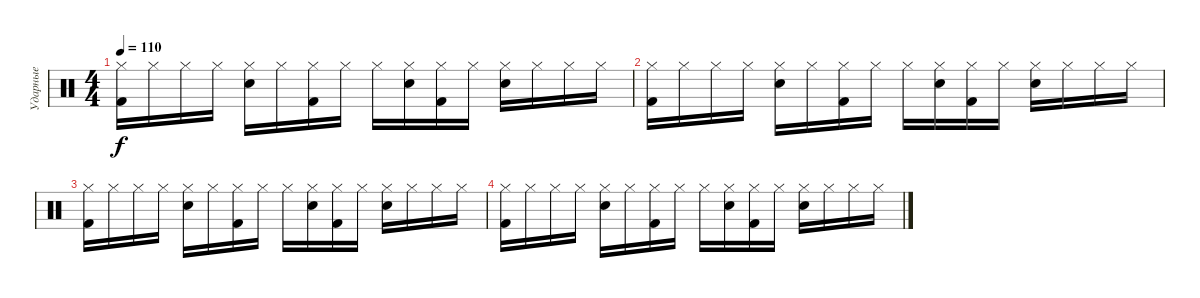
\track ("Ударные" "Ударные") {instrument percussion}
\staff {score}
\articulation defaults
\ts (4 4)
\tempo 110
\clef neutral
\ks c
("Hi-Hat (closed)" "Kick (hit) 2").16{dy f} "Hi-Hat (closed)".16 "Hi-Hat (closed)".16 "Hi-Hat (closed)".16 ("Hi-Hat (closed)" "Snare (hit) 2").16 "Hi-Hat (closed)".16 ("Hi-Hat (closed)" "Kick (hit) 2").16 "Hi-Hat (closed)".16 "Hi-Hat (closed)".16 ("Hi-Hat (closed)" "Snare (hit) 2").16 ("Hi-Hat (closed)" "Kick (hit) 2").16 "Hi-Hat (closed)".16 ("Hi-Hat (closed)" "Snare (hit) 2").16 "Hi-Hat (closed)".16 "Hi-Hat (closed)".16 "Hi-Hat (closed)".16 |
("Hi-Hat (closed)" "Kick (hit) 2").16 "Hi-Hat (closed)".16 "Hi-Hat (closed)".16 "Hi-Hat (closed)".16 ("Hi-Hat (closed)" "Snare (hit) 2").16 "Hi-Hat (closed)".16 ("Hi-Hat (closed)" "Kick (hit) 2").16 "Hi-Hat (closed)".16 "Hi-Hat (closed)".16 ("Hi-Hat (closed)" "Snare (hit) 2").16 ("Hi-Hat (closed)" "Kick (hit) 2").16 "Hi-Hat (closed)".16 ("Hi-Hat (closed)" "Snare (hit) 2").16 "Hi-Hat (closed)".16 "Hi-Hat (closed)".16 "Hi-Hat (closed)".16 |
("Hi-Hat (closed)" "Kick (hit) 2").16 "Hi-Hat (closed)".16 "Hi-Hat (closed)".16 "Hi-Hat (closed)".16 ("Hi-Hat (closed)" "Snare (hit) 2").16 "Hi-Hat (closed)".16 ("Hi-Hat (closed)" "Kick (hit) 2").16 "Hi-Hat (closed)".16 "Hi-Hat (closed)".16 ("Hi-Hat (closed)" "Snare (hit) 2").16 ("Hi-Hat (closed)" "Kick (hit) 2").16 "Hi-Hat (closed)".16 ("Hi-Hat (closed)" "Snare (hit) 2").16 "Hi-Hat (closed)".16 "Hi-Hat (closed)".16 "Hi-Hat (closed)".16 |
("Hi-Hat (closed)" "Kick (hit) 2").16 "Hi-Hat (closed)".16 "Hi-Hat (closed)".16 "Hi-Hat (closed)".16 ("Hi-Hat (closed)" "Snare (hit) 2").16 "Hi-Hat (closed)".16 ("Hi-Hat (closed)" "Kick (hit) 2").16 "Hi-Hat (closed)".16 "Hi-Hat (closed)".16 ("Hi-Hat (closed)" "Snare (hit) 2").16 ("Hi-Hat (closed)" "Kick (hit) 2").16 "Hi-Hat (closed)".16 ("Hi-Hat (closed)" "Snare (hit) 2").16 "Hi-Hat (closed)".16 "Hi-Hat (closed)".16 "Hi-Hat (closed)".16
